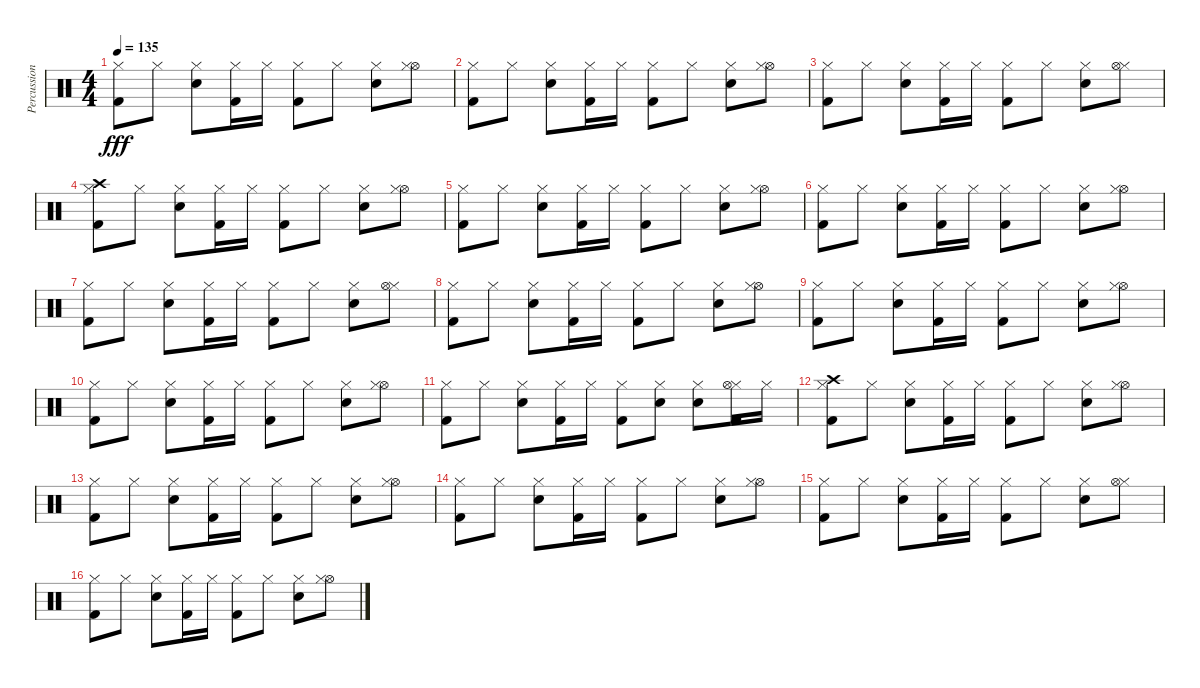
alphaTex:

\track ("Percussion" "Percussion") {instrument percussion}
\staff {score}
\articulation defaults
\ts (4 4)
\tempo 135
\clef neutral
\ks c
("Hi-Hat (closed)" "Kick (hit) 2").8{dy fff} "Hi-Hat (closed)".8 ("Hi-Hat (closed)" "Snare (hit) 2").8 ("Kick (hit) 2" "Hi-Hat (closed)").16 "Hi-Hat (closed)".16 ("Hi-Hat (closed)" "Kick (hit) 2").8 "Hi-Hat (closed)".8 ("Hi-Hat (closed)" "Snare (hit) 2").8 ("Hi-Hat (open)" "Hi-Hat (closed)").8 |
("Hi-Hat (closed)" "Kick (hit) 2").8 "Hi-Hat (closed)".8 ("Snare (hit) 2" "Hi-Hat (closed)").8 ("Hi-Hat (closed)" "Kick (hit) 2").16 "Hi-Hat (closed)".16 ("Hi-Hat (closed)" "Kick (hit) 2").8 "Hi-Hat (closed)".8 ("Hi-Hat (closed)" "Snare (hit) 2").8 ("Hi-Hat (open)" "Hi-Hat (closed)").8 |
("Hi-Hat (closed)" "Kick (hit) 2").8 "Hi-Hat (closed)".8 ("Hi-Hat (closed)" "Snare (hit) 2").8 ("Kick (hit) 2" "Hi-Hat (closed)").16 "Hi-Hat (closed)".16 ("Hi-Hat (closed)" "Kick (hit) 2").8 "Hi-Hat (closed)".8 ("Snare (hit) 2" "Hi-Hat (closed)").8 ("Hi-Hat (closed)" "Hi-Hat (open)").8 |
("Crash high (hit)" "Hi-Hat (closed)" "Kick (hit) 2").8 "Hi-Hat (closed)".8 ("Hi-Hat (closed)" "Snare (hit) 2").8 ("Hi-Hat (closed)" "Kick (hit) 2").16 "Hi-Hat (closed)".16 ("Hi-Hat (closed)" "Kick (hit) 2").8 "Hi-Hat (closed)".8 ("Snare (hit) 2" "Hi-Hat (closed)").8 ("Hi-Hat (open)" "Hi-Hat (closed)").8 |
("Hi-Hat (closed)" "Kick (hit) 2").8 "Hi-Hat (closed)".8 ("Hi-Hat (closed)" "Snare (hit) 2").8 ("Kick (hit) 2" "Hi-Hat (closed)").16 "Hi-Hat (closed)".16 ("Hi-Hat (closed)" "Kick (hit) 2").8 "Hi-Hat (closed)".8 ("Hi-Hat (closed)" "Snare (hit) 2").8 ("Hi-Hat (open)" "Hi-Hat (closed)").8 |
("Hi-Hat (closed)" "Kick (hit) 2").8 "Hi-Hat (closed)".8 ("Snare (hit) 2" "Hi-Hat (closed)").8 ("Hi-Hat (closed)" "Kick (hit) 2").16 "Hi-Hat (closed)".16 ("Hi-Hat (closed)" "Kick (hit) 2").8 "Hi-Hat (closed)".8 ("Hi-Hat (closed)" "Snare (hit) 2").8 ("Hi-Hat (open)" "Hi-Hat (closed)").8 |
("Hi-Hat (closed)" "Kick (hit) 2").8 "Hi-Hat (closed)".8 ("Hi-Hat (closed)" "Snare (hit) 2").8 ("Kick (hit) 2" "Hi-Hat (closed)").16 "Hi-Hat (closed)".16 ("Hi-Hat (closed)" "Kick (hit) 2").8 "Hi-Hat (closed)".8 ("Snare (hit) 2" "Hi-Hat (closed)").8 ("Hi-Hat (closed)" "Hi-Hat (open)").8 |
("Hi-Hat (closed)" "Kick (hit) 2").8 "Hi-Hat (closed)".8 ("Hi-Hat (closed)" "Snare (hit) 2").8 ("Hi-Hat (closed)" "Kick (hit) 2").16 "Hi-Hat (closed)".16 ("Hi-Hat (closed)" "Kick (hit) 2").8 "Hi-Hat (closed)".8 ("Snare (hit) 2" "Hi-Hat (closed)").8 ("Hi-Hat (open)" "Hi-Hat (closed)").8 |
("Hi-Hat (closed)" "Kick (hit) 2").8 "Hi-Hat (closed)".8 ("Hi-Hat (closed)" "Snare (hit) 2").8 ("Kick (hit) 2" "Hi-Hat (closed)").16 "Hi-Hat (closed)".16 ("Hi-Hat (closed)" "Kick (hit) 2").8 "Hi-Hat (closed)".8 ("Hi-Hat (closed)" "Snare (hit) 2").8 ("Hi-Hat (open)" "Hi-Hat (closed)").8 |
("Hi-Hat (closed)" "Kick (hit) 2").8 "Hi-Hat (closed)".8 ("Snare (hit) 2" "Hi-Hat (closed)").8 ("Hi-Hat (closed)" "Kick (hit) 2").16 "Hi-Hat (closed)".16 ("Hi-Hat (closed)" "Kick (hit) 2").8 "Hi-Hat (closed)".8 ("Hi-Hat (closed)" "Snare (hit) 2").8 ("Hi-Hat (open)" "Hi-Hat (closed)").8 |
("Hi-Hat (closed)" "Kick (hit) 2").8 "Hi-Hat (closed)".8 ("Hi-Hat (closed)" "Snare (hit) 2").8 ("Kick (hit) 2" "Hi-Hat (closed)").16 "Hi-Hat (closed)".16 ("Hi-Hat (closed)" "Kick (hit) 2").8 ("Hi-Hat (closed)" "Snare (hit) 2").8 ("Snare (hit) 2" "Hi-Hat (closed)").8 ("Hi-Hat (closed)" "Hi-Hat (open)" "Kick (hit) 2").16 "Hi-Hat (closed)".16 |
("Crash high (hit)" "Hi-Hat (closed)" "Kick (hit) 2").8 "Hi-Hat (closed)".8 ("Hi-Hat (closed)" "Snare (hit) 2").8 ("Hi-Hat (closed)" "Kick (hit) 2").16 "Hi-Hat (closed)".16 ("Hi-Hat (closed)" "Kick (hit) 2").8 "Hi-Hat (closed)".8 ("Snare (hit) 2" "Hi-Hat (closed)").8 ("Hi-Hat (open)" "Hi-Hat (closed)").8 |
("Hi-Hat (closed)" "Kick (hit) 2").8 "Hi-Hat (closed)".8 ("Hi-Hat (closed)" "Snare (hit) 2").8 ("Kick (hit) 2" "Hi-Hat (closed)").16 "Hi-Hat (closed)".16 ("Hi-Hat (closed)" "Kick (hit) 2").8 "Hi-Hat (closed)".8 ("Hi-Hat (closed)" "Snare (hit) 2").8 ("Hi-Hat (open)" "Hi-Hat (closed)").8 |
("Hi-Hat (closed)" "Kick (hit) 2").8 "Hi-Hat (closed)".8 ("Snare (hit) 2" "Hi-Hat (closed)").8 ("Hi-Hat (closed)" "Kick (hit) 2").16 "Hi-Hat (closed)".16 ("Hi-Hat (closed)" "Kick (hit) 2").8 "Hi-Hat (closed)".8 ("Hi-Hat (closed)" "Snare (hit) 2").8 ("Hi-Hat (open)" "Hi-Hat (closed)").8 |
("Hi-Hat (closed)" "Kick (hit) 2").8 "Hi-Hat (closed)".8 ("Hi-Hat (closed)" "Snare (hit) 2").8 ("Kick (hit) 2" "Hi-Hat (closed)").16 "Hi-Hat (closed)".16 ("Hi-Hat (closed)" "Kick (hit) 2").8 "Hi-Hat (closed)".8 ("Snare (hit) 2" "Hi-Hat (closed)").8 ("Hi-Hat (closed)" "Hi-Hat (open)").8 |
("Hi-Hat (closed)" "Kick (hit) 2").8 "Hi-Hat (closed)".8 ("Hi-Hat (closed)" "Snare (hit) 2").8 ("Hi-Hat (closed)" "Kick (hit) 2").16 "Hi-Hat (closed)".16 ("Hi-Hat (closed)" "Kick (hit) 2").8 "Hi-Hat (closed)".8 ("Snare (hit) 2" "Hi-Hat (closed)").8 ("Hi-Hat (open)" "Hi-Hat (closed)").8
